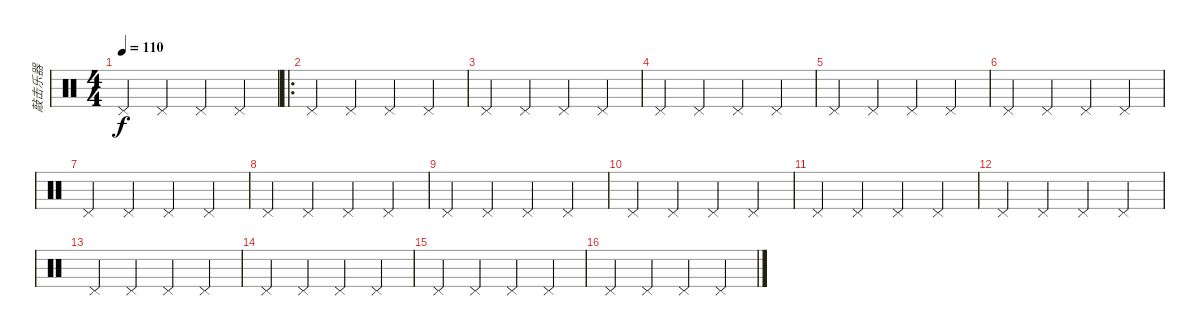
\track ("敲击乐器" "敲击乐器") {instrument percussion}
\staff {score}
\articulation defaults
\ts (4 4)
\tempo 110
\clef neutral
\ks c "Pedal Hi-Hat (hit)".4{dy f} "Pedal Hi-Hat (hit)".4 "Pedal Hi-Hat (hit)".4 "Pedal Hi-Hat (hit)".4
|
\ro "Pedal Hi-Hat (hit)".4 "Pedal Hi-Hat (hit)".4 "Pedal Hi-Hat (hit)".4 "Pedal Hi-Hat (hit)".4
|
"Pedal Hi-Hat (hit)".4 "Pedal Hi-Hat (hit)".4 "Pedal Hi-Hat (hit)".4 "Pedal Hi-Hat (hit)".4 |
"Pedal Hi-Hat (hit)".4 "Pedal Hi-Hat (hit)".4 "Pedal Hi-Hat (hit)".4 "Pedal Hi-Hat (hit)".4 |
"Pedal Hi-Hat (hit)".4 "Pedal Hi-Hat (hit)".4 "Pedal Hi-Hat (hit)".4 "Pedal Hi-Hat (hit)".4 |
"Pedal Hi-Hat (hit)".4 "Pedal Hi-Hat (hit)".4 "Pedal Hi-Hat (hit)".4 "Pedal Hi-Hat (hit)".4 |
"Pedal Hi-Hat (hit)".4 "Pedal Hi-Hat (hit)".4 "Pedal Hi-Hat (hit)".4 "Pedal Hi-Hat (hit)".4 |
"Pedal Hi-Hat (hit)".4 "Pedal Hi-Hat (hit)".4 "Pedal Hi-Hat (hit)".4 "Pedal Hi-Hat (hit)".4 |
"Pedal Hi-Hat (hit)".4 "Pedal Hi-Hat (hit)".4 "Pedal Hi-Hat (hit)".4 "Pedal Hi-Hat (hit)".4 |
"Pedal Hi-Hat (hit)".4 "Pedal Hi-Hat (hit)".4 "Pedal Hi-Hat (hit)".4 "Pedal Hi-Hat (hit)".4 |
"Pedal Hi-Hat (hit)".4 "Pedal Hi-Hat (hit)".4 "Pedal Hi-Hat (hit)".4 "Pedal Hi-Hat (hit)".4 |
"Pedal Hi-Hat (hit)".4 "Pedal Hi-Hat (hit)".4 "Pedal Hi-Hat (hit)".4 "Pedal Hi-Hat (hit)".4 |
"Pedal Hi-Hat (hit)".4 "Pedal Hi-Hat (hit)".4 "Pedal Hi-Hat (hit)".4 "Pedal Hi-Hat (hit)".4 |
"Pedal Hi-Hat (hit)".4 "Pedal Hi-Hat (hit)".4 "Pedal Hi-Hat (hit)".4 "Pedal Hi-Hat (hit)".4 |
"Pedal Hi-Hat (hit)".4 "Pedal Hi-Hat (hit)".4 "Pedal Hi-Hat (hit)".4 "Pedal Hi-Hat (hit)".4 |
"Pedal Hi-Hat (hit)".4 "Pedal Hi-Hat (hit)".4 "Pedal Hi-Hat (hit)".4 "Pedal Hi-Hat (hit)".4
